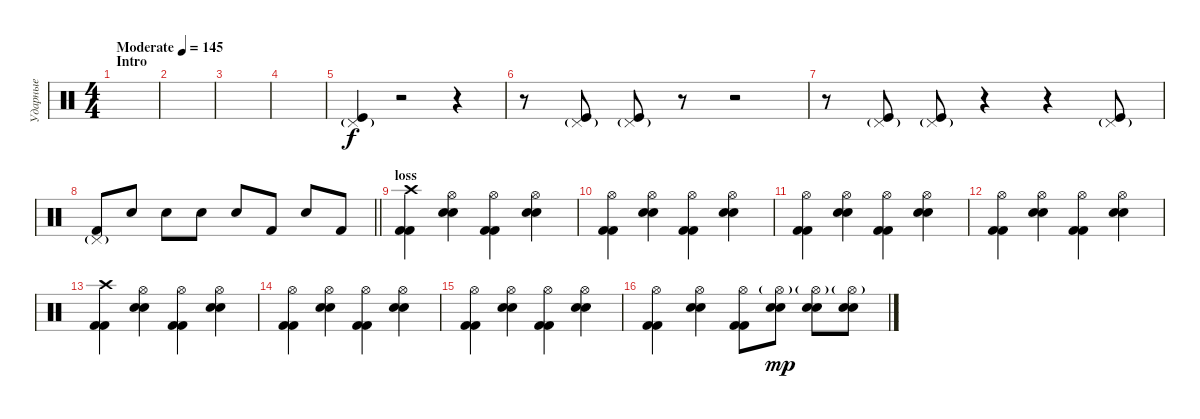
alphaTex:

\track ("Ударные" "Ударные") {instrument percussion}
\staff {score}
\articulation defaults
\ts (4 4)
\section ("" "Intro")
\tempo (145 "Moderate")
\clef neutral
\ks c
|
|
|
|
("Kick (hit)" "Pedal Hi-Hat (hit)"{g}).4 r.2 r.4 |
r.8 ("Kick (hit)" "Pedal Hi-Hat (hit)"{g}).8 ("Kick (hit)" "Pedal Hi-Hat (hit)"{g}).8 r.8 r.2 |
r.8 ("Kick (hit)" "Pedal Hi-Hat (hit)"{g}).8 ("Kick (hit)" "Pedal Hi-Hat (hit)"{g}).8 r.4 r.4 ("Kick (hit)" "Pedal Hi-Hat (hit)"{g}).8 |
\barLineRight lightlight
("Pedal Hi-Hat (hit)"{g} "Kick (hit) 2").8 "Electric Snare (hit)".8{dy f} "Electric Snare (hit)".8 "Electric Snare (hit)".8 "Electric Snare (hit)".8 "Kick (hit) 2".8 "Electric Snare (hit)".8 "Kick (hit) 2".8 |
\section ("" "loss")
("Crash high (hit)" "Kick (hit) 2" "Kick (hit) 2").4 ("Hi-Hat (open)" "Electric Snare (hit)" "Electric Snare (hit)").4 ("Hi-Hat (open)" "Kick (hit) 2" "Kick (hit) 2").4 ("Hi-Hat (open)" "Electric Snare (hit)" "Electric Snare (hit)").4 |
("Hi-Hat (open)" "Kick (hit) 2" "Kick (hit) 2").4 ("Hi-Hat (open)" "Electric Snare (hit)" "Electric Snare (hit)").4 ("Hi-Hat (open)" "Kick (hit) 2" "Kick (hit) 2").4 ("Hi-Hat (open)" "Electric Snare (hit)" "Electric Snare (hit)").4 |
("Hi-Hat (open)" "Kick (hit) 2" "Kick (hit) 2").4 ("Hi-Hat (open)" "Electric Snare (hit)" "Electric Snare (hit)").4 ("Hi-Hat (open)" "Kick (hit) 2" "Kick (hit) 2").4 ("Hi-Hat (open)" "Electric Snare (hit)" "Electric Snare (hit)").4 |
("Hi-Hat (open)" "Kick (hit) 2" "Kick (hit) 2").4 ("Hi-Hat (open)" "Electric Snare (hit)" "Electric Snare (hit)").4 ("Hi-Hat (open)" "Kick (hit) 2" "Kick (hit) 2").4 ("Hi-Hat (open)" "Electric Snare (hit)" "Electric Snare (hit)").4 |
("Crash high (hit)" "Kick (hit) 2" "Kick (hit) 2").4 ("Hi-Hat (open)" "Electric Snare (hit)" "Electric Snare (hit)").4 ("Hi-Hat (open)" "Kick (hit) 2" "Kick (hit) 2").4 ("Hi-Hat (open)" "Electric Snare (hit)" "Electric Snare (hit)").4 |
("Hi-Hat (open)" "Kick (hit) 2" "Kick (hit) 2").4 ("Hi-Hat (open)" "Electric Snare (hit)" "Electric Snare (hit)").4 ("Hi-Hat (open)" "Kick (hit) 2" "Kick (hit) 2").4 ("Hi-Hat (open)" "Electric Snare (hit)" "Electric Snare (hit)").4 |
("Hi-Hat (open)" "Kick (hit) 2" "Kick (hit) 2").4 ("Hi-Hat (open)" "Electric Snare (hit)" "Electric Snare (hit)").4 ("Hi-Hat (open)" "Kick (hit) 2" "Kick (hit) 2").4 ("Hi-Hat (open)" "Electric Snare (hit)" "Electric Snare (hit)").4 |
("Hi-Hat (open)" "Kick (hit) 2" "Kick (hit) 2").4 ("Hi-Hat (open)" "Electric Snare (hit)" "Electric Snare (hit)").4 ("Hi-Hat (open)" "Kick (hit) 2" "Kick (hit) 2").8 ("Hi-Hat (open)"{g} "Electric Snare (hit)" "Electric Snare (hit)").8{dy mp} ("Hi-Hat (open)"{g} "Electric Snare (hit)" "Electric Snare (hit)").8 ("Hi-Hat (open)"{g} "Electric Snare (hit)" "Electric Snare (hit)").8
